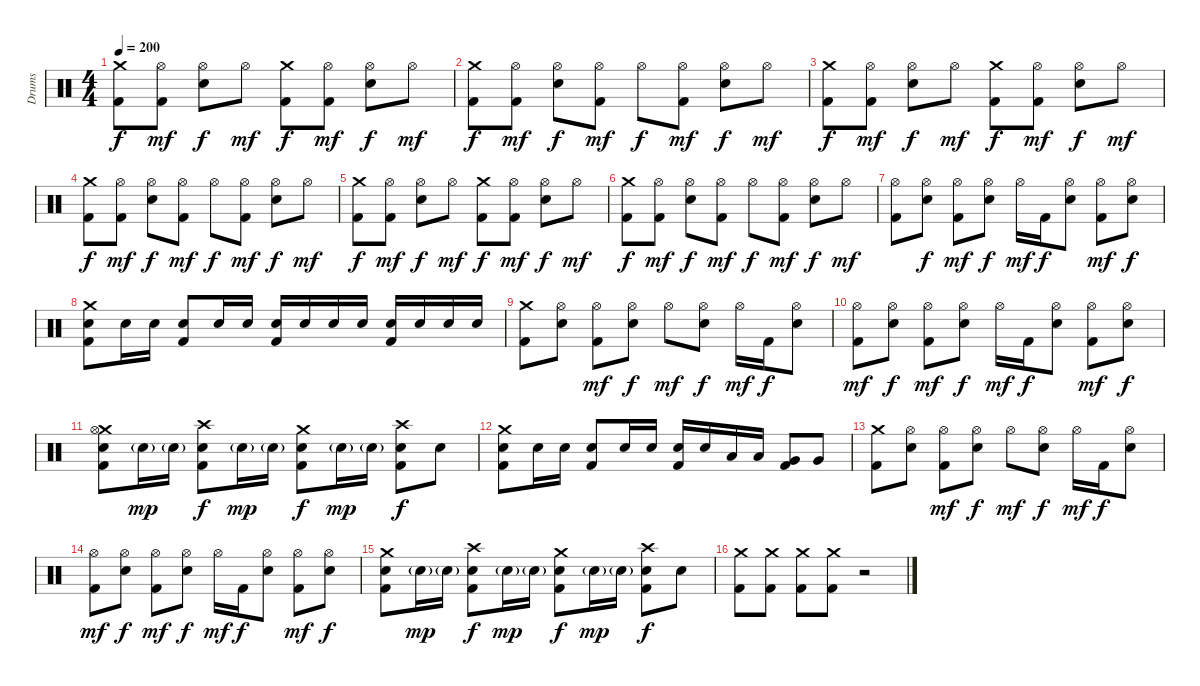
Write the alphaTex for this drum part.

\track ("Drums" "Drums") {instrument percussion}
\staff {score}
\articulation defaults
\ts (4 4)
\tempo 200
\clef neutral
\ks c
("Crash medium (hit)" "Kick (hit) 2").8{dy f} ("Hi-Hat (open)" "Kick (hit) 2").8{dy mf} ("Hi-Hat (open)" "Electric Snare (hit)").8{dy f} "Hi-Hat (open)".8{dy mf} ("Crash medium (hit)" "Kick (hit) 2").8{dy f} ("Hi-Hat (open)" "Kick (hit) 2").8{dy mf} ("Hi-Hat (open)" "Electric Snare (hit)").8{dy f} "Hi-Hat (open)".8{dy mf} |
("Crash medium (hit)" "Kick (hit) 2").8{dy f} ("Hi-Hat (open)" "Kick (hit) 2").8{dy mf} ("Hi-Hat (open)" "Electric Snare (hit)").8{dy f} ("Hi-Hat (open)" "Kick (hit) 2").8{dy mf} "Hi-Hat (open)".8{dy f} ("Hi-Hat (open)" "Kick (hit) 2").8{dy mf} ("Hi-Hat (open)" "Electric Snare (hit)").8{dy f} "Hi-Hat (open)".8{dy mf} |
("Crash medium (hit)" "Kick (hit) 2").8{dy f} ("Hi-Hat (open)" "Kick (hit) 2").8{dy mf} ("Hi-Hat (open)" "Electric Snare (hit)").8{dy f} "Hi-Hat (open)".8{dy mf} ("Crash medium (hit)" "Kick (hit) 2").8{dy f} ("Hi-Hat (open)" "Kick (hit) 2").8{dy mf} ("Hi-Hat (open)" "Electric Snare (hit)").8{dy f} "Hi-Hat (open)".8{dy mf} |
("Crash medium (hit)" "Kick (hit) 2").8{dy f} ("Hi-Hat (open)" "Kick (hit) 2").8{dy mf} ("Hi-Hat (open)" "Electric Snare (hit)").8{dy f} ("Hi-Hat (open)" "Kick (hit) 2").8{dy mf} "Hi-Hat (open)".8{dy f} ("Hi-Hat (open)" "Kick (hit) 2").8{dy mf} ("Hi-Hat (open)" "Electric Snare (hit)").8{dy f} "Hi-Hat (open)".8{dy mf} |
("Crash medium (hit)" "Kick (hit) 2").8{dy f} ("Hi-Hat (open)" "Kick (hit) 2").8{dy mf} ("Hi-Hat (open)" "Electric Snare (hit)").8{dy f} "Hi-Hat (open)".8{dy mf} ("Crash medium (hit)" "Kick (hit) 2").8{dy f} ("Hi-Hat (open)" "Kick (hit) 2").8{dy mf} ("Hi-Hat (open)" "Electric Snare (hit)").8{dy f} "Hi-Hat (open)".8{dy mf} |
("Crash medium (hit)" "Kick (hit) 2").8{dy f} ("Hi-Hat (open)" "Kick (hit) 2").8{dy mf} ("Hi-Hat (open)" "Electric Snare (hit)").8{dy f} ("Hi-Hat (open)" "Kick (hit) 2").8{dy mf} "Hi-Hat (open)".8{dy f} ("Hi-Hat (open)" "Kick (hit) 2").8{dy mf} ("Hi-Hat (open)" "Electric Snare (hit)").8{dy f} "Hi-Hat (open)".8{dy mf} |
("Hi-Hat (open)" "Kick (hit) 2").8 ("Hi-Hat (open)" "Electric Snare (hit)").8{dy f} ("Hi-Hat (open)" "Kick (hit) 2").8{dy mf} ("Hi-Hat (open)" "Electric Snare (hit)").8{dy f} "Hi-Hat (open)".16{dy mf} "Kick (hit) 2".16{dy f} ("Hi-Hat (open)" "Electric Snare (hit)").8 ("Hi-Hat (open)" "Kick (hit) 2").8{dy mf} ("Hi-Hat (open)" "Electric Snare (hit)").8{dy f} |
("Crash medium (hit)" "Electric Snare (hit)" "Kick (hit) 2").8 "Electric Snare (hit)".16 "Electric Snare (hit)".16 ("Electric Snare (hit)" "Kick (hit) 2").8 "Electric Snare (hit)".16 "Electric Snare (hit)".16 ("Electric Snare (hit)" "Kick (hit) 2").16 "Electric Snare (hit)".16 "Electric Snare (hit)".16 "Electric Snare (hit)".16 ("Electric Snare (hit)" "Kick (hit) 2").16 "Electric Snare (hit)".16 "Electric Snare (hit)".16 "Electric Snare (hit)".16 |
("Crash medium (hit)" "Kick (hit) 2").8 ("Hi-Hat (open)" "Electric Snare (hit)").8 ("Hi-Hat (open)" "Kick (hit) 2").8{dy mf} ("Hi-Hat (open)" "Electric Snare (hit)").8{dy f} "Hi-Hat (open)".8{dy mf} ("Hi-Hat (open)" "Electric Snare (hit)").8{dy f} "Hi-Hat (open)".16{dy mf} "Kick (hit) 2".16{dy f} ("Hi-Hat (open)" "Electric Snare (hit)").8 |
("Hi-Hat (open)" "Kick (hit) 2").8{dy mf} ("Hi-Hat (open)" "Electric Snare (hit)").8{dy f} ("Hi-Hat (open)" "Kick (hit) 2").8{dy mf} ("Hi-Hat (open)" "Electric Snare (hit)").8{dy f} "Hi-Hat (open)".16{dy mf} "Kick (hit) 2".16{dy f} ("Hi-Hat (open)" "Electric Snare (hit)").8 ("Hi-Hat (open)" "Kick (hit) 2").8{dy mf} ("Hi-Hat (open)" "Electric Snare (hit)").8{dy f} |
("Crash medium (hit)" "Hi-Hat (open)" "Electric Snare (hit)" "Kick (hit) 2").8 "Electric Snare (hit)"{g}.16{dy mp} "Electric Snare (hit)"{g}.16 ("Crash high (hit)" "Electric Snare (hit)" "Kick (hit) 2").8{dy f} "Electric Snare (hit)"{g}.16{dy mp} "Electric Snare (hit)"{g}.16 ("Crash medium (hit)" "Electric Snare (hit)" "Kick (hit) 2").8{dy f} "Electric Snare (hit)"{g}.16{dy mp} "Electric Snare (hit)"{g}.16 ("Crash high (hit)" "Electric Snare (hit)" "Kick (hit) 2").8{dy f} "Electric Snare (hit)".8 |
("Crash medium (hit)" "Electric Snare (hit)" "Kick (hit) 2").8 "Electric Snare (hit)".16 "Electric Snare (hit)".16 ("Electric Snare (hit)" "Kick (hit) 2").8 "Electric Snare (hit)".16 "Electric Snare (hit)".16 ("Electric Snare (hit)" "Kick (hit) 2").16 "Electric Snare (hit)".16 "Low Tom (hit)".16 "Low Tom (hit)".16 ("Very Low Tom (hit)" "Kick (hit) 2").8 "Very Low Tom (hit)".8 |
("Crash medium (hit)" "Kick (hit) 2").8 ("Hi-Hat (open)" "Electric Snare (hit)").8 ("Hi-Hat (open)" "Kick (hit) 2").8{dy mf} ("Hi-Hat (open)" "Electric Snare (hit)").8{dy f} "Hi-Hat (open)".8{dy mf} ("Hi-Hat (open)" "Electric Snare (hit)").8{dy f} "Hi-Hat (open)".16{dy mf} "Kick (hit) 2".16{dy f} ("Hi-Hat (open)" "Electric Snare (hit)").8 |
("Hi-Hat (open)" "Kick (hit) 2").8{dy mf} ("Hi-Hat (open)" "Electric Snare (hit)").8{dy f} ("Hi-Hat (open)" "Kick (hit) 2").8{dy mf} ("Hi-Hat (open)" "Electric Snare (hit)").8{dy f} "Hi-Hat (open)".16{dy mf} "Kick (hit) 2".16{dy f} ("Hi-Hat (open)" "Electric Snare (hit)").8 ("Hi-Hat (open)" "Kick (hit) 2").8{dy mf} ("Hi-Hat (open)" "Electric Snare (hit)").8{dy f} |
("Crash medium (hit)" "Electric Snare (hit)" "Kick (hit) 2").8 "Electric Snare (hit)"{g}.16{dy mp} "Electric Snare (hit)"{g}.16 ("Crash high (hit)" "Electric Snare (hit)" "Kick (hit) 2").8{dy f} "Electric Snare (hit)"{g}.16{dy mp} "Electric Snare (hit)"{g}.16 ("Crash medium (hit)" "Electric Snare (hit)" "Kick (hit) 2").8{dy f} "Electric Snare (hit)"{g}.16{dy mp} "Electric Snare (hit)"{g}.16 ("Crash high (hit)" "Electric Snare (hit)" "Kick (hit) 2").8{dy f} "Electric Snare (hit)".8 |
("Crash medium (hit)" "Kick (hit) 2").8 ("Crash medium (hit)" "Kick (hit) 2").8 ("Crash medium (hit)" "Kick (hit) 2").8 ("Crash medium (hit)" "Kick (hit) 2").8 r.2
